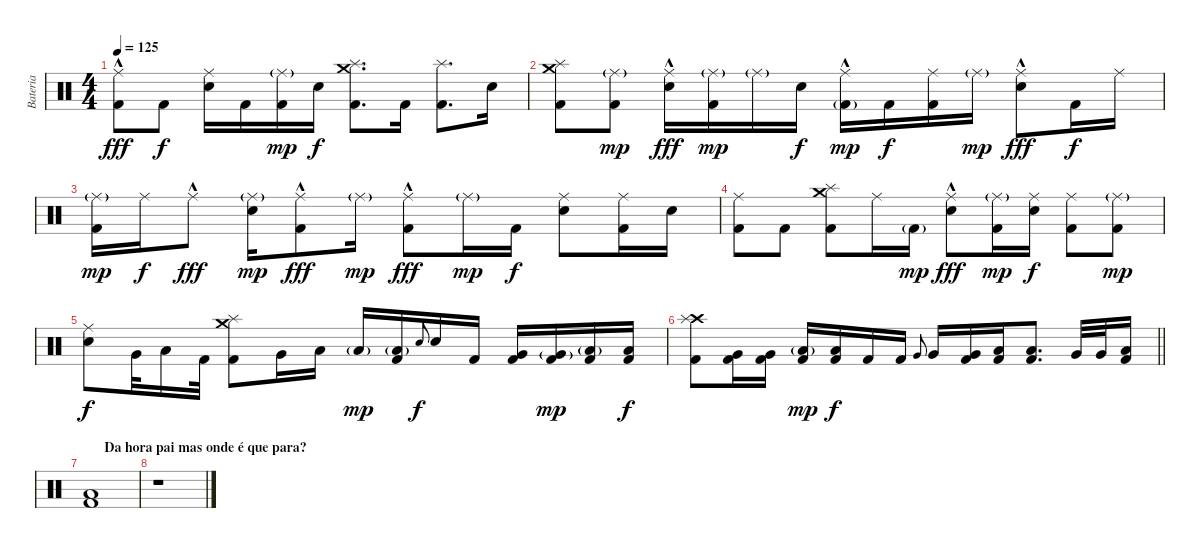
\track ("Bateria" "Bateria") {instrument percussion}
\staff {score}
\articulation defaults
\ts (4 4)
\tempo 125
\clef neutral
\ks c
("Ride (middle)"{hac} "Kick (hit) 2").8{dy fff} "Kick (hit) 2".8{dy f} ("Ride (middle)" "Electric Snare (hit)").16 "Kick (hit) 2".16 ("Ride (middle)"{g} "Kick (hit) 2").16{dy mp} "Electric Snare (hit)".16{dy f} ("Crash medium (hit)" "Splash (hit)" "Kick (hit) 2").8{d} "Kick (hit) 2".16 ("Splash (hit)" "Kick (hit) 2").8{d} "Electric Snare (hit)".16 |
("Crash medium (hit)" "Splash (hit)" "Kick (hit) 2").8 ("Ride (middle)"{g} "Kick (hit) 2").8{dy mp} ("Ride (middle)"{hac} "Electric Snare (hit)").16{dy fff} ("Ride (middle)"{g} "Kick (hit) 2").16{dy mp} "Ride (middle)"{g}.16 "Electric Snare (hit)".16{dy f} ("Ride (middle)"{hac} "Kick (hit) 2"{g}).16{dy mp} "Kick (hit) 2".16{dy f} ("Ride (middle)" "Kick (hit) 2").16 "Ride (middle)"{g}.16{dy mp} ("Ride (middle)"{hac} "Electric Snare (hit)").8{dy fff} "Kick (hit) 2".16{dy f} "Ride (middle)".16 |
("Ride (middle)"{g} "Kick (hit) 2").16{dy mp} "Ride (middle)".16{dy f} "Ride (middle)"{hac}.8{dy fff} ("Ride (middle)"{g} "Electric Snare (hit)").16{dy mp} ("Ride (middle)"{hac} "Kick (hit) 2").8{dy fff} "Ride (middle)"{g}.16{dy mp} ("Ride (middle)"{hac} "Kick (hit) 2").8{dy fff} "Ride (middle)"{g}.16{dy mp} "Kick (hit) 2".16{dy f} ("Ride (middle)" "Electric Snare (hit)").8 ("Ride (middle)" "Kick (hit) 2").16 "Electric Snare (hit)".16 |
("Ride (middle)" "Kick (hit) 2").8 "Kick (hit) 2".8 ("Crash medium (hit)" "Splash (hit)" "Kick (hit) 2").8 "Ride (middle)".16 "Kick (hit) 2"{g}.16{dy mp} ("Ride (middle)"{hac} "Electric Snare (hit)").8{dy fff} ("Ride (middle)"{g} "Kick (hit) 2").16{dy mp} ("Ride (middle)" "Electric Snare (hit)").16{dy f} ("Ride (middle)" "Kick (hit) 2").8 ("Ride (middle)"{g} "Kick (hit) 2").8{dy mp} |
("Ride (middle)" "Electric Snare (hit)").8{dy f} "Very Low Tom (hit)".32 "Low Floor Tom (hit)".16 "Kick (hit) 2".32 ("Crash medium (hit)" "Splash (hit)" "Kick (hit) 2").8 "Very Low Tom (hit)".16 "Low Floor Tom (hit)".16 "Low Floor Tom (hit)"{g}.16{dy mp} ("Low Floor Tom (hit)"{g} "Kick (hit) 2").16 "Electric Snare (hit)".8{gr onbeat dy f} "Electric Snare (hit)".16 "Kick (hit) 2".16 ("Very Low Tom (hit)" "Kick (hit) 2").16 ("Very Low Tom (hit)"{g} "Kick (hit) 2").16{dy mp} ("Low Floor Tom (hit)"{g} "Kick (hit) 2").16 ("Low Floor Tom (hit)" "Kick (hit) 2").16{dy f} |
\barLineRight lightlight
("Crash high (hit)" "Splash (hit)" "Kick (hit) 2").8 ("Very Low Tom (hit)" "Kick (hit) 2").16 ("Very Low Tom (hit)" "Kick (hit) 2").16 ("Low Floor Tom (hit)"{g} "Kick (hit) 2").16{dy mp} ("Low Floor Tom (hit)" "Kick (hit) 2").16{dy f} "Kick (hit) 2".16 "Kick (hit) 2".16 "Very Low Tom (hit)".8{gr onbeat} "Very Low Tom (hit)".16 ("Very Low Tom (hit)" "Kick (hit) 2").16 ("Low Floor Tom (hit)" "Kick (hit) 2").16 ("Low Floor Tom (hit)" "Kick (hit) 2").8{d} "Very Low Tom (hit)".32 "Very Low Tom (hit)".32 ("Low Floor Tom (hit)" "Kick (hit) 2").16 |
\section ("" "      Da hora pai mas onde é que para?")
("Low Floor Tom (hit)" "Kick (hit) 2").1 |
r.1
